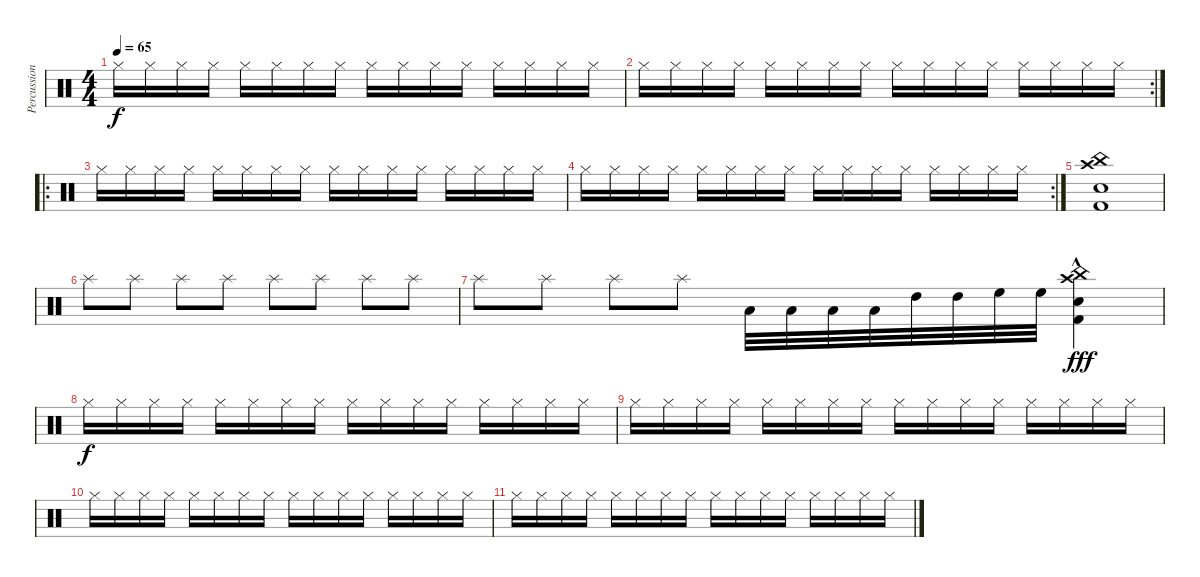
\track ("Percussion" "Percussion") {instrument percussion}
\staff {score}
\articulation defaults
\ts (4 4)
\tempo 65
\clef neutral
\ks c "Hi-Hat (closed)".16{dy f} "Hi-Hat (closed)".16 "Hi-Hat (closed)".16 "Hi-Hat (closed)".16 "Hi-Hat (closed)".16 "Hi-Hat (closed)".16 "Hi-Hat (closed)".16 "Hi-Hat (closed)".16 "Hi-Hat (closed)".16 "Hi-Hat (closed)".16 "Hi-Hat (closed)".16 "Hi-Hat (closed)".16 "Hi-Hat (closed)".16 "Hi-Hat (closed)".16 "Hi-Hat (closed)".16 "Hi-Hat (closed)".16
|
\rc 2 "Hi-Hat (closed)".16 "Hi-Hat (closed)".16 "Hi-Hat (closed)".16 "Hi-Hat (closed)".16 "Hi-Hat (closed)".16 "Hi-Hat (closed)".16 "Hi-Hat (closed)".16 "Hi-Hat (closed)".16 "Hi-Hat (closed)".16 "Hi-Hat (closed)".16 "Hi-Hat (closed)".16 "Hi-Hat (closed)".16 "Hi-Hat (closed)".16 "Hi-Hat (closed)".16 "Hi-Hat (closed)".16 "Hi-Hat (closed)".16
|
\ro "Hi-Hat (closed)".16 "Hi-Hat (closed)".16 "Hi-Hat (closed)".16 "Hi-Hat (closed)".16 "Hi-Hat (closed)".16 "Hi-Hat (closed)".16 "Hi-Hat (closed)".16 "Hi-Hat (closed)".16 "Hi-Hat (closed)".16 "Hi-Hat (closed)".16 "Hi-Hat (closed)".16 "Hi-Hat (closed)".16 "Hi-Hat (closed)".16 "Hi-Hat (closed)".16 "Hi-Hat (closed)".16 "Hi-Hat (closed)".16
|
\rc 2 "Hi-Hat (closed)".16 "Hi-Hat (closed)".16 "Hi-Hat (closed)".16 "Hi-Hat (closed)".16 "Hi-Hat (closed)".16 "Hi-Hat (closed)".16 "Hi-Hat (closed)".16 "Hi-Hat (closed)".16 "Hi-Hat (closed)".16 "Hi-Hat (closed)".16 "Hi-Hat (closed)".16 "Hi-Hat (closed)".16 "Hi-Hat (closed)".16 "Hi-Hat (closed)".16 "Hi-Hat (closed)".16 "Hi-Hat (closed)".16
|
("China (hit)" "Crash high (hit)" "Snare (hit) 2" "Kick (hit) 2").1 |
"Splash (hit)".8 "Splash (hit)".8 "Splash (hit)".8 "Splash (hit)".8 "Splash (hit)".8 "Splash (hit)".8 "Splash (hit)".8 "Splash (hit)".8 |
"Splash (hit)".8 "Splash (hit)".8 "Splash (hit)".8 "Splash (hit)".8 "Low Floor Tom (hit)".32 "Low Floor Tom (hit)".32 "Low Floor Tom (hit)".32 "Low Floor Tom (hit)".32 "High Tom (hit)".32 "High Tom (hit)".32 "High Floor Tom (hit)".32 "High Floor Tom (hit)".32 ("China (hit)"{hac} "Crash high (hit)"{hac} "Snare (hit) 2"{hac} "Kick (hit) 2"{hac}).4{dy fff} |
"Hi-Hat (closed)".16{dy f} "Hi-Hat (closed)".16 "Hi-Hat (closed)".16 "Hi-Hat (closed)".16 "Hi-Hat (closed)".16 "Hi-Hat (closed)".16 "Hi-Hat (closed)".16 "Hi-Hat (closed)".16 "Hi-Hat (closed)".16 "Hi-Hat (closed)".16 "Hi-Hat (closed)".16 "Hi-Hat (closed)".16 "Hi-Hat (closed)".16 "Hi-Hat (closed)".16 "Hi-Hat (closed)".16 "Hi-Hat (closed)".16 |
"Hi-Hat (closed)".16 "Hi-Hat (closed)".16 "Hi-Hat (closed)".16 "Hi-Hat (closed)".16 "Hi-Hat (closed)".16 "Hi-Hat (closed)".16 "Hi-Hat (closed)".16 "Hi-Hat (closed)".16 "Hi-Hat (closed)".16 "Hi-Hat (closed)".16 "Hi-Hat (closed)".16 "Hi-Hat (closed)".16 "Hi-Hat (closed)".16 "Hi-Hat (closed)".16 "Hi-Hat (closed)".16 "Hi-Hat (closed)".16 |
"Hi-Hat (closed)".16 "Hi-Hat (closed)".16 "Hi-Hat (closed)".16 "Hi-Hat (closed)".16 "Hi-Hat (closed)".16 "Hi-Hat (closed)".16 "Hi-Hat (closed)".16 "Hi-Hat (closed)".16 "Hi-Hat (closed)".16 "Hi-Hat (closed)".16 "Hi-Hat (closed)".16 "Hi-Hat (closed)".16 "Hi-Hat (closed)".16 "Hi-Hat (closed)".16 "Hi-Hat (closed)".16 "Hi-Hat (closed)".16 |
"Hi-Hat (closed)".16 "Hi-Hat (closed)".16 "Hi-Hat (closed)".16 "Hi-Hat (closed)".16 "Hi-Hat (closed)".16 "Hi-Hat (closed)".16 "Hi-Hat (closed)".16 "Hi-Hat (closed)".16 "Hi-Hat (closed)".16 "Hi-Hat (closed)".16 "Hi-Hat (closed)".16 "Hi-Hat (closed)".16 "Hi-Hat (closed)".16 "Hi-Hat (closed)".16 "Hi-Hat (closed)".16 "Hi-Hat (closed)".16
